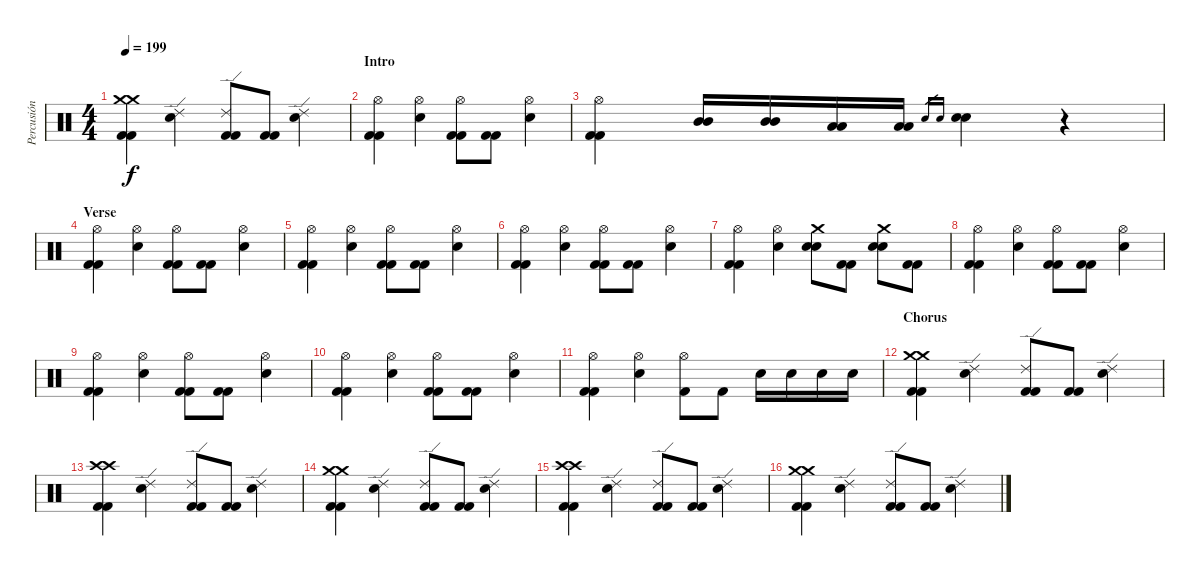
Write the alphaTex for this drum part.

\track ("Percusión" "Percusión") {instrument percussion}
\staff {score}
\articulation defaults
\ts (4 4)
\tempo 199
\clef neutral
\ks c
("Crash medium (hit)" "Kick (hit) 2" "Kick (hit) 2" "Crash medium (hit)").4{dy f} ("Ride (edge) 2" "Electric Snare (hit)").4 ("Ride (edge) 2" "Kick (hit) 2" "Kick (hit) 2").8 ("Kick (hit) 2" "Kick (hit) 2").8 ("Ride (edge) 2" "Electric Snare (hit)").4 |
\section ("" "Intro")
("Hi-Hat (open)" "Kick (hit) 2" "Kick (hit) 2").4 ("Hi-Hat (open)" "Electric Snare (hit)").4 ("Hi-Hat (open)" "Kick (hit) 2" "Kick (hit) 2").8 ("Kick (hit) 2" "Kick (hit) 2").8 ("Hi-Hat (open)" "Electric Snare (hit)").4 |
("Hi-Hat (open)" "Kick (hit) 2" "Kick (hit) 2").4 ("Mid Tom (hit)" "Mid Tom (hit)").16 ("Mid Tom (hit)" "Mid Tom (hit)").16 ("Low Tom (hit)" "Low Tom (hit)").16 ("Low Tom (hit)" "Low Tom (hit)").16 "Electric Snare (hit)".16{gr} "Electric Snare (hit)".16{gr} ("Electric Snare (hit)" "Electric Snare (hit)").4 r.4 |
\section ("" "Verse")
("Hi-Hat (open)" "Kick (hit) 2" "Kick (hit) 2").4 ("Hi-Hat (open)" "Electric Snare (hit)").4 ("Hi-Hat (open)" "Kick (hit) 2" "Kick (hit) 2").8 ("Kick (hit) 2" "Kick (hit) 2").8 ("Hi-Hat (open)" "Electric Snare (hit)").4 |
("Hi-Hat (open)" "Kick (hit) 2" "Kick (hit) 2").4 ("Hi-Hat (open)" "Electric Snare (hit)").4 ("Hi-Hat (open)" "Kick (hit) 2" "Kick (hit) 2").8 ("Kick (hit) 2" "Kick (hit) 2").8 ("Hi-Hat (open)" "Electric Snare (hit)").4 |
("Hi-Hat (open)" "Kick (hit) 2" "Kick (hit) 2").4 ("Hi-Hat (open)" "Electric Snare (hit)").4 ("Hi-Hat (open)" "Kick (hit) 2" "Kick (hit) 2").8 ("Kick (hit) 2" "Kick (hit) 2").8 ("Hi-Hat (open)" "Electric Snare (hit)").4 |
("Hi-Hat (open)" "Kick (hit) 2" "Kick (hit) 2").4 ("Hi-Hat (open)" "Electric Snare (hit)").4 ("Crash medium (hit)" "Electric Snare (hit)" "Electric Snare (hit)").8 ("Kick (hit) 2" "Kick (hit) 2").8 ("Crash medium (hit)" "Electric Snare (hit)" "Electric Snare (hit)").8 ("Kick (hit) 2" "Kick (hit) 2").8 |
("Hi-Hat (open)" "Kick (hit) 2" "Kick (hit) 2").4 ("Hi-Hat (open)" "Electric Snare (hit)").4 ("Hi-Hat (open)" "Kick (hit) 2" "Kick (hit) 2").8 ("Kick (hit) 2" "Kick (hit) 2").8 ("Hi-Hat (open)" "Electric Snare (hit)").4 |
("Hi-Hat (open)" "Kick (hit) 2" "Kick (hit) 2").4 ("Hi-Hat (open)" "Electric Snare (hit)").4 ("Hi-Hat (open)" "Kick (hit) 2" "Kick (hit) 2").8 ("Kick (hit) 2" "Kick (hit) 2").8 ("Hi-Hat (open)" "Electric Snare (hit)").4 |
("Hi-Hat (open)" "Kick (hit) 2" "Kick (hit) 2").4 ("Hi-Hat (open)" "Electric Snare (hit)").4 ("Hi-Hat (open)" "Kick (hit) 2" "Kick (hit) 2").8 ("Kick (hit) 2" "Kick (hit) 2").8 ("Hi-Hat (open)" "Electric Snare (hit)").4 |
("Hi-Hat (open)" "Kick (hit) 2" "Kick (hit) 2").4 ("Hi-Hat (open)" "Electric Snare (hit)").4 ("Hi-Hat (open)" "Kick (hit) 2").8 "Kick (hit) 2".8 "Electric Snare (hit)".16 "Electric Snare (hit)".16 "Electric Snare (hit)".16 "Electric Snare (hit)".16 |
\section ("" "Chorus")
("Crash medium (hit)" "Kick (hit) 2" "Kick (hit) 2" "Crash medium (hit)").4 ("Ride (edge) 2" "Electric Snare (hit)").4 ("Ride (edge) 2" "Kick (hit) 2" "Kick (hit) 2").8 ("Kick (hit) 2" "Kick (hit) 2").8 ("Ride (edge) 2" "Electric Snare (hit)").4 |
("Crash high (hit)" "Kick (hit) 2" "Kick (hit) 2" "Crash high (hit)").4 ("Ride (edge) 2" "Electric Snare (hit)").4 ("Ride (edge) 2" "Kick (hit) 2" "Kick (hit) 2").8 ("Kick (hit) 2" "Kick (hit) 2").8 ("Ride (edge) 2" "Electric Snare (hit)").4 |
("Crash medium (hit)" "Kick (hit) 2" "Kick (hit) 2" "Crash medium (hit)").4 ("Ride (edge) 2" "Electric Snare (hit)").4 ("Ride (edge) 2" "Kick (hit) 2" "Kick (hit) 2").8 ("Kick (hit) 2" "Kick (hit) 2").8 ("Ride (edge) 2" "Electric Snare (hit)").4 |
("Crash high (hit)" "Kick (hit) 2" "Kick (hit) 2" "Crash high (hit)").4 ("Ride (edge) 2" "Electric Snare (hit)").4 ("Ride (edge) 2" "Kick (hit) 2" "Kick (hit) 2").8 ("Kick (hit) 2" "Kick (hit) 2").8 ("Ride (edge) 2" "Electric Snare (hit)").4 |
("Crash medium (hit)" "Kick (hit) 2" "Kick (hit) 2" "Crash medium (hit)").4 ("Ride (edge) 2" "Electric Snare (hit)").4 ("Ride (edge) 2" "Kick (hit) 2" "Kick (hit) 2").8 ("Kick (hit) 2" "Kick (hit) 2").8 ("Ride (edge) 2" "Electric Snare (hit)").4
